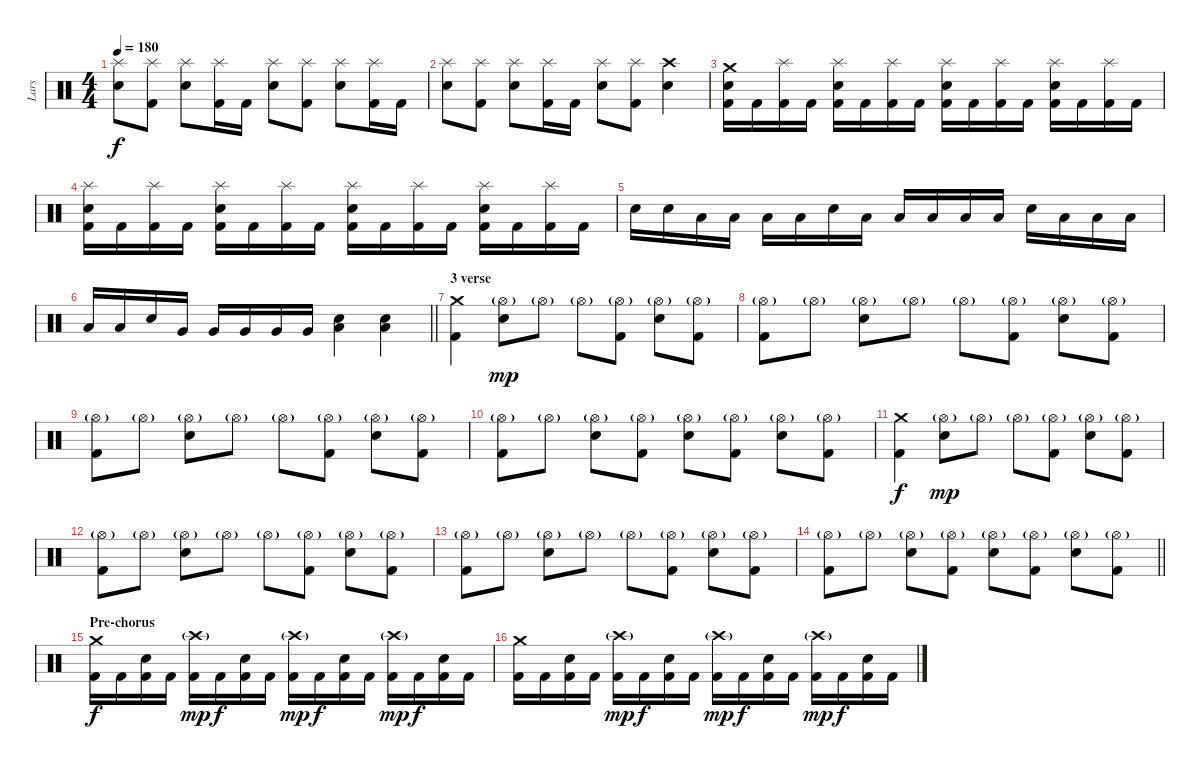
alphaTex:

\track ("Lars" "Lars") {instrument percussion}
\staff {score}
\articulation defaults
\ts (4 4)
\tempo 180
\clef neutral
\ks c
("Splash (hit)" "Electric Snare (hit)").8{dy f} ("Splash (hit)" "Kick (hit) 2").8 ("Splash (hit)" "Electric Snare (hit)").8 ("Splash (hit)" "Kick (hit) 2").16 "Kick (hit) 2".16 ("Splash (hit)" "Electric Snare (hit)").8 ("Splash (hit)" "Kick (hit) 2").8 ("Splash (hit)" "Electric Snare (hit)").8 ("Splash (hit)" "Kick (hit) 2").16 "Kick (hit) 2".16 |
("Splash (hit)" "Electric Snare (hit)").8 ("Splash (hit)" "Kick (hit) 2").8 ("Splash (hit)" "Electric Snare (hit)").8 ("Splash (hit)" "Kick (hit) 2").16 "Kick (hit) 2".16 ("Splash (hit)" "Electric Snare (hit)").8 ("Splash (hit)" "Kick (hit) 2").8 ("Crash high (hit)" "Electric Snare (hit)").4 |
("Crash medium (hit)" "Electric Snare (hit)" "Kick (hit) 2").16 "Kick (hit) 2".16 ("Splash (hit)" "Kick (hit) 2").16 "Kick (hit) 2".16 ("Splash (hit)" "Electric Snare (hit)" "Kick (hit) 2").16 "Kick (hit) 2".16 ("Splash (hit)" "Kick (hit) 2").16 "Kick (hit) 2".16 ("Splash (hit)" "Electric Snare (hit)" "Kick (hit) 2").16 "Kick (hit) 2".16 ("Splash (hit)" "Kick (hit) 2").16 "Kick (hit) 2".16 ("Splash (hit)" "Electric Snare (hit)" "Kick (hit) 2").16 "Kick (hit) 2".16 ("Splash (hit)" "Kick (hit) 2").16 "Kick (hit) 2".16 |
("Splash (hit)" "Electric Snare (hit)" "Kick (hit) 2").16 "Kick (hit) 2".16 ("Splash (hit)" "Kick (hit) 2").16 "Kick (hit) 2".16 ("Splash (hit)" "Electric Snare (hit)" "Kick (hit) 2").16 "Kick (hit) 2".16 ("Splash (hit)" "Kick (hit) 2").16 "Kick (hit) 2".16 ("Splash (hit)" "Electric Snare (hit)" "Kick (hit) 2").16 "Kick (hit) 2".16 ("Splash (hit)" "Kick (hit) 2").16 "Kick (hit) 2".16 ("Splash (hit)" "Electric Snare (hit)" "Kick (hit) 2").16 "Kick (hit) 2".16 ("Splash (hit)" "Kick (hit) 2").16 "Kick (hit) 2".16 |
"Electric Snare (hit)".16 "Electric Snare (hit)".16 "Low Tom (hit)".16 "Low Tom (hit)".16 "Low Tom (hit)".16 "Low Tom (hit)".16 "Electric Snare (hit)".16 "Low Tom (hit)".16 "Low Tom (hit)".16 "Low Tom (hit)".16 "Low Tom (hit)".16 "Low Tom (hit)".16 "Electric Snare (hit)".16 "Low Tom (hit)".16 "Low Tom (hit)".16 "Low Tom (hit)".16 |
\barLineRight lightlight "Low Tom (hit)".16 "Low Tom (hit)".16 "Electric Snare (hit)".16 "Very Low Tom (hit)".16 "Very Low Tom (hit)".16 "Very Low Tom (hit)".16 "Very Low Tom (hit)".16 "Very Low Tom (hit)".16
("Low Floor Tom (hit)" "Electric Snare (hit)").4 ("Low Floor Tom (hit)" "Electric Snare (hit)").4 |
\section ("" "3 verse")
("Crash medium (hit)" "Kick (hit) 2").4 ("Hi-Hat (open)"{g} "Electric Snare (hit)").8{dy mp} "Hi-Hat (open)"{g}.8 "Hi-Hat (open)"{g}.8 ("Hi-Hat (open)"{g} "Kick (hit) 2").8 ("Hi-Hat (open)"{g} "Electric Snare (hit)").8 ("Hi-Hat (open)"{g} "Kick (hit) 2").8 |
("Hi-Hat (open)"{g} "Kick (hit) 2").8 "Hi-Hat (open)"{g}.8 ("Hi-Hat (open)"{g} "Electric Snare (hit)").8 "Hi-Hat (open)"{g}.8 "Hi-Hat (open)"{g}.8 ("Hi-Hat (open)"{g} "Kick (hit) 2").8 ("Hi-Hat (open)"{g} "Electric Snare (hit)").8 ("Hi-Hat (open)"{g} "Kick (hit) 2").8 |
("Hi-Hat (open)"{g} "Kick (hit) 2").8 "Hi-Hat (open)"{g}.8 ("Hi-Hat (open)"{g} "Electric Snare (hit)").8 "Hi-Hat (open)"{g}.8 "Hi-Hat (open)"{g}.8 ("Hi-Hat (open)"{g} "Kick (hit) 2").8 ("Hi-Hat (open)"{g} "Electric Snare (hit)").8 ("Hi-Hat (open)"{g} "Kick (hit) 2").8 |
("Hi-Hat (open)"{g} "Kick (hit) 2").8 "Hi-Hat (open)"{g}.8 ("Hi-Hat (open)"{g} "Electric Snare (hit)").8 ("Hi-Hat (open)"{g} "Kick (hit) 2").8 ("Hi-Hat (open)"{g} "Electric Snare (hit)").8 ("Hi-Hat (open)"{g} "Kick (hit) 2").8 ("Hi-Hat (open)"{g} "Electric Snare (hit)").8 ("Hi-Hat (open)"{g} "Kick (hit) 2").8 |
("Crash medium (hit)" "Kick (hit) 2").4{dy f} ("Hi-Hat (open)"{g} "Electric Snare (hit)").8{dy mp} "Hi-Hat (open)"{g}.8 "Hi-Hat (open)"{g}.8 ("Hi-Hat (open)"{g} "Kick (hit) 2").8 ("Hi-Hat (open)"{g} "Electric Snare (hit)").8 ("Hi-Hat (open)"{g} "Kick (hit) 2").8 |
("Hi-Hat (open)"{g} "Kick (hit) 2").8 "Hi-Hat (open)"{g}.8 ("Hi-Hat (open)"{g} "Electric Snare (hit)").8 "Hi-Hat (open)"{g}.8 "Hi-Hat (open)"{g}.8 ("Hi-Hat (open)"{g} "Kick (hit) 2").8 ("Hi-Hat (open)"{g} "Electric Snare (hit)").8 ("Hi-Hat (open)"{g} "Kick (hit) 2").8 |
("Hi-Hat (open)"{g} "Kick (hit) 2").8 "Hi-Hat (open)"{g}.8 ("Hi-Hat (open)"{g} "Electric Snare (hit)").8 "Hi-Hat (open)"{g}.8 "Hi-Hat (open)"{g}.8 ("Hi-Hat (open)"{g} "Kick (hit) 2").8 ("Hi-Hat (open)"{g} "Electric Snare (hit)").8 ("Hi-Hat (open)"{g} "Kick (hit) 2").8 |
\barLineRight lightlight
("Hi-Hat (open)"{g} "Kick (hit) 2").8 "Hi-Hat (open)"{g}.8 ("Hi-Hat (open)"{g} "Electric Snare (hit)").8 ("Hi-Hat (open)"{g} "Kick (hit) 2").8 ("Hi-Hat (open)"{g} "Electric Snare (hit)").8 ("Hi-Hat (open)"{g} "Kick (hit) 2").8 ("Hi-Hat (open)"{g} "Electric Snare (hit)").8 ("Hi-Hat (open)"{g} "Kick (hit) 2").8 |
\section ("" "Pre-chorus")
("Crash medium (hit)" "Kick (hit) 2").16{dy f} "Kick (hit) 2".16 ("Electric Snare (hit)" "Kick (hit) 2").16 "Kick (hit) 2".16 ("Crash high (hit)"{g} "Kick (hit) 2").16{dy mp} "Kick (hit) 2".16{dy f} ("Electric Snare (hit)" "Kick (hit) 2").16 "Kick (hit) 2".16 ("Crash high (hit)"{g} "Kick (hit) 2").16{dy mp} "Kick (hit) 2".16{dy f} ("Electric Snare (hit)" "Kick (hit) 2").16 "Kick (hit) 2".16 ("Crash high (hit)"{g} "Kick (hit) 2").16{dy mp} "Kick (hit) 2".16{dy f} ("Electric Snare (hit)" "Kick (hit) 2").16 "Kick (hit) 2".16 |
("Crash medium (hit)" "Kick (hit) 2").16 "Kick (hit) 2".16 ("Electric Snare (hit)" "Kick (hit) 2").16 "Kick (hit) 2".16 ("Crash high (hit)"{g} "Kick (hit) 2").16{dy mp} "Kick (hit) 2".16{dy f} ("Electric Snare (hit)" "Kick (hit) 2").16 "Kick (hit) 2".16 ("Crash high (hit)"{g} "Kick (hit) 2").16{dy mp} "Kick (hit) 2".16{dy f} ("Electric Snare (hit)" "Kick (hit) 2").16 "Kick (hit) 2".16 ("Crash high (hit)"{g} "Kick (hit) 2").16{dy mp} "Kick (hit) 2".16{dy f} ("Electric Snare (hit)" "Kick (hit) 2").16 "Kick (hit) 2".16
